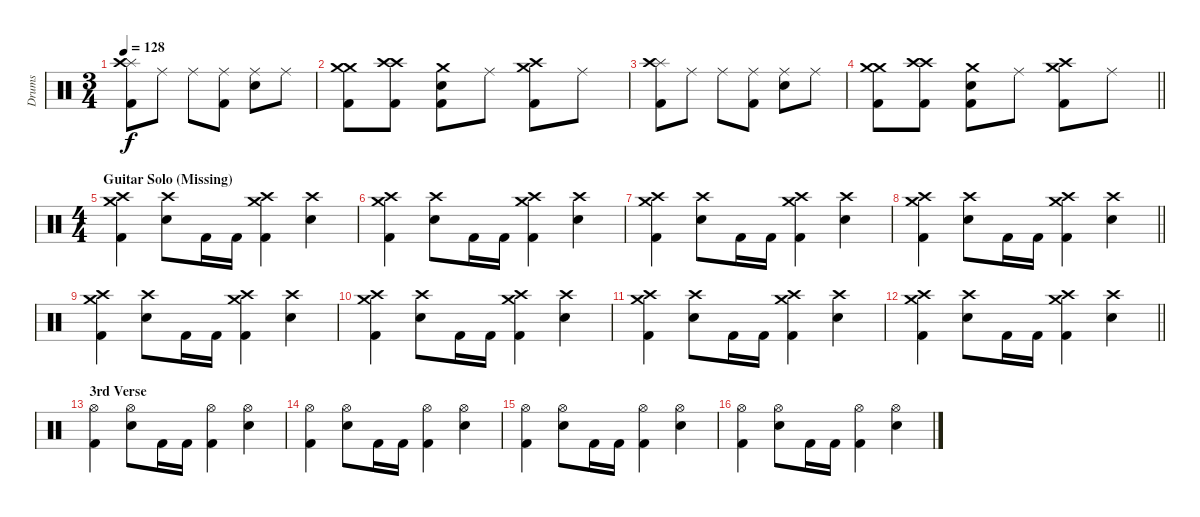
\track ("Drums" "Drums") {instrument percussion}
\staff {score}
\articulation defaults
\ts (3 4)
\tempo 128
\clef neutral
\ks c
("Splash (hit)" "Crash high (hit)" "Kick (hit) 2").8{dy f} "Ride (middle)".8 "Ride (middle)".8 ("Ride (middle)" "Kick (hit) 2").8 ("Ride (middle)" "Snare (hit) 2").8 "Ride (middle)".8 |
("Crash medium (hit)" "Crash medium (hit)" "Kick (hit) 2").8 ("Crash high (hit)" "Crash high (hit)" "Kick (hit) 2").8 ("Crash medium (hit)" "Snare (hit) 2" "Kick (hit) 2").8 "Ride (middle)".8 ("Crash medium (hit)" "Crash high (hit)" "Kick (hit) 2").8 "Ride (middle)".8 |
("Splash (hit)" "Crash high (hit)" "Kick (hit) 2").8 "Ride (middle)".8 "Ride (middle)".8 ("Ride (middle)" "Kick (hit) 2").8 ("Ride (middle)" "Snare (hit) 2").8 "Ride (middle)".8 |
\barLineRight lightlight
("Crash medium (hit)" "Crash medium (hit)" "Kick (hit) 2").8 ("Crash high (hit)" "Crash high (hit)" "Kick (hit) 2").8 ("Crash medium (hit)" "Snare (hit) 2" "Kick (hit) 2").8 "Ride (middle)".8 ("Crash medium (hit)" "Crash high (hit)" "Kick (hit) 2").8 "Ride (middle)".8 |
\ts (4 4)
\section ("" "Guitar Solo (Missing)")
("Crash high (hit)" "Crash medium (hit)" "Kick (hit) 2").4 ("Crash high (hit)" "Snare (hit) 2").8 "Kick (hit) 2".16 "Kick (hit) 2".16 ("Crash high (hit)" "Crash medium (hit)" "Kick (hit) 2").4 ("Crash high (hit)" "Snare (hit) 2").4 |
("Crash high (hit)" "Crash medium (hit)" "Kick (hit) 2").4 ("Crash high (hit)" "Snare (hit) 2").8 "Kick (hit) 2".16 "Kick (hit) 2".16 ("Crash high (hit)" "Crash medium (hit)" "Kick (hit) 2").4 ("Crash high (hit)" "Snare (hit) 2").4 |
("Crash high (hit)" "Crash medium (hit)" "Kick (hit) 2").4 ("Crash high (hit)" "Snare (hit) 2").8 "Kick (hit) 2".16 "Kick (hit) 2".16 ("Crash high (hit)" "Crash medium (hit)" "Kick (hit) 2").4 ("Crash high (hit)" "Snare (hit) 2").4 |
\barLineRight lightlight
("Crash high (hit)" "Crash medium (hit)" "Kick (hit) 2").4 ("Crash high (hit)" "Snare (hit) 2").8 "Kick (hit) 2".16 "Kick (hit) 2".16 ("Crash high (hit)" "Crash medium (hit)" "Kick (hit) 2").4 ("Crash high (hit)" "Snare (hit) 2").4 |
("Crash high (hit)" "Crash medium (hit)" "Kick (hit) 2").4 ("Crash high (hit)" "Snare (hit) 2").8 "Kick (hit) 2".16 "Kick (hit) 2".16 ("Crash high (hit)" "Crash medium (hit)" "Kick (hit) 2").4 ("Crash high (hit)" "Snare (hit) 2").4 |
("Crash high (hit)" "Crash medium (hit)" "Kick (hit) 2").4 ("Crash high (hit)" "Snare (hit) 2").8 "Kick (hit) 2".16 "Kick (hit) 2".16 ("Crash high (hit)" "Crash medium (hit)" "Kick (hit) 2").4 ("Crash high (hit)" "Snare (hit) 2").4 |
("Crash high (hit)" "Crash medium (hit)" "Kick (hit) 2").4 ("Crash high (hit)" "Snare (hit) 2").8 "Kick (hit) 2".16 "Kick (hit) 2".16 ("Crash high (hit)" "Crash medium (hit)" "Kick (hit) 2").4 ("Crash high (hit)" "Snare (hit) 2").4 |
\barLineRight lightlight
("Crash high (hit)" "Crash medium (hit)" "Kick (hit) 2").4 ("Crash high (hit)" "Snare (hit) 2").8 "Kick (hit) 2".16 "Kick (hit) 2".16 ("Crash high (hit)" "Crash medium (hit)" "Kick (hit) 2").4 ("Crash high (hit)" "Snare (hit) 2").4 |
\section ("" "3rd Verse")
("Hi-Hat (open)" "Kick (hit) 2").4 ("Hi-Hat (open)" "Snare (hit) 2").8 "Kick (hit) 2".16 "Kick (hit) 2".16 ("Hi-Hat (open)" "Kick (hit) 2").4 ("Hi-Hat (open)" "Snare (hit) 2").4 |
("Hi-Hat (open)" "Kick (hit) 2").4 ("Hi-Hat (open)" "Snare (hit) 2").8 "Kick (hit) 2".16 "Kick (hit) 2".16 ("Hi-Hat (open)" "Kick (hit) 2").4 ("Hi-Hat (open)" "Snare (hit) 2").4 |
("Hi-Hat (open)" "Kick (hit) 2").4 ("Hi-Hat (open)" "Snare (hit) 2").8 "Kick (hit) 2".16 "Kick (hit) 2".16 ("Hi-Hat (open)" "Kick (hit) 2").4 ("Hi-Hat (open)" "Snare (hit) 2").4 |
("Hi-Hat (open)" "Kick (hit) 2").4 ("Hi-Hat (open)" "Snare (hit) 2").8 "Kick (hit) 2".16 "Kick (hit) 2".16 ("Hi-Hat (open)" "Kick (hit) 2").4 ("Hi-Hat (open)" "Snare (hit) 2").4
